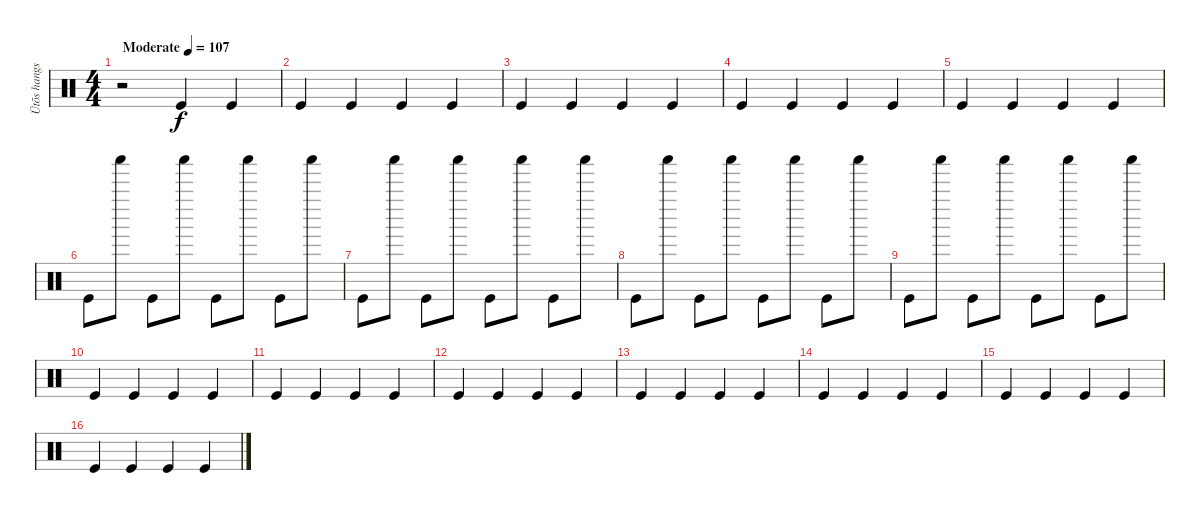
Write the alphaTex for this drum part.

\track ("Ütõs hangszer" "Ütõs hangs") {instrument percussion}
\staff {score}
\articulation defaults
\ts (4 4)
\tempo (107 "Moderate")
\clef neutral
\ks c
r.2{dy f} "Kick (hit)".4 "Kick (hit)".4 |
"Kick (hit)".4 "Kick (hit)".4 "Kick (hit)".4 "Kick (hit)".4 |
"Kick (hit)".4 "Kick (hit)".4 "Kick (hit)".4 "Kick (hit)".4 |
"Kick (hit)".4 "Kick (hit)".4 "Kick (hit)".4 "Kick (hit)".4 |
"Kick (hit)".4 "Kick (hit)".4 "Kick (hit)".4 "Kick (hit)".4 |
"Kick (hit)".8 "Shaker (hit)".8 "Kick (hit)".8 "Shaker (hit)".8 "Kick (hit)".8 "Shaker (hit)".8 "Kick (hit)".8 "Shaker (hit)".8 |
"Kick (hit)".8 "Shaker (hit)".8 "Kick (hit)".8 "Shaker (hit)".8 "Kick (hit)".8 "Shaker (hit)".8 "Kick (hit)".8 "Shaker (hit)".8 |
"Kick (hit)".8 "Shaker (hit)".8 "Kick (hit)".8 "Shaker (hit)".8 "Kick (hit)".8 "Shaker (hit)".8 "Kick (hit)".8 "Shaker (hit)".8 |
"Kick (hit)".8 "Shaker (hit)".8 "Kick (hit)".8 "Shaker (hit)".8 "Kick (hit)".8 "Shaker (hit)".8 "Kick (hit)".8 "Shaker (hit)".8 |
"Kick (hit)".4 "Kick (hit)".4 "Kick (hit)".4 "Kick (hit)".4 |
"Kick (hit)".4 "Kick (hit)".4 "Kick (hit)".4 "Kick (hit)".4 |
"Kick (hit)".4 "Kick (hit)".4 "Kick (hit)".4 "Kick (hit)".4 |
"Kick (hit)".4 "Kick (hit)".4 "Kick (hit)".4 "Kick (hit)".4 |
"Kick (hit)".4 "Kick (hit)".4 "Kick (hit)".4 "Kick (hit)".4 |
"Kick (hit)".4 "Kick (hit)".4 "Kick (hit)".4 "Kick (hit)".4 |
"Kick (hit)".4 "Kick (hit)".4 "Kick (hit)".4 "Kick (hit)".4
